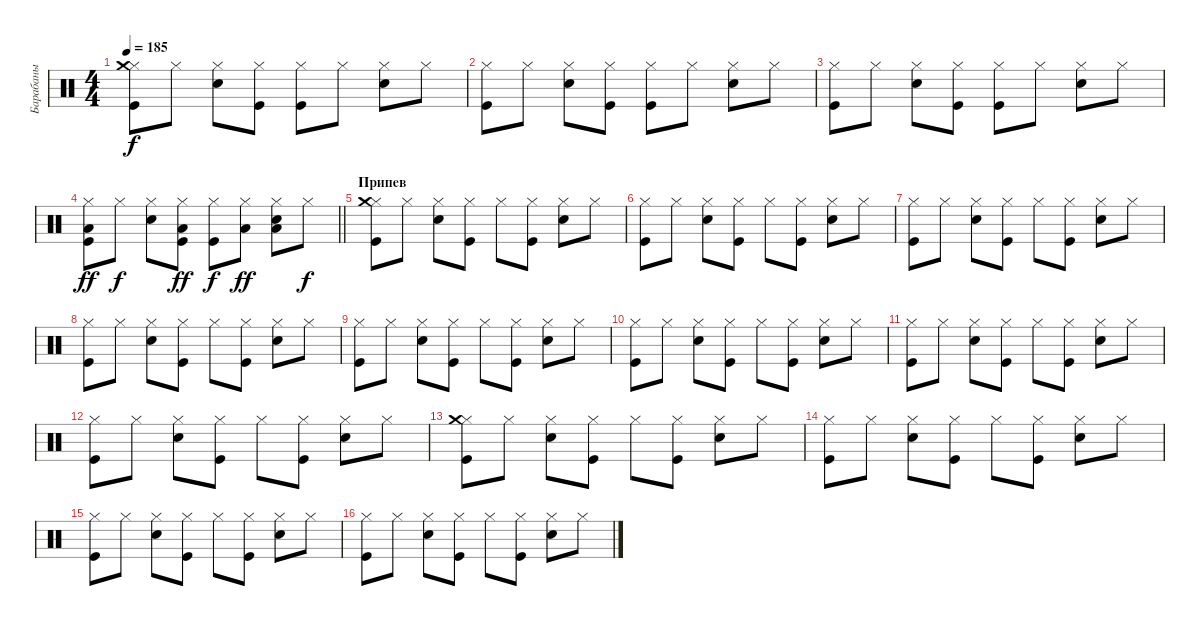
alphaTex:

\track ("Барабаны" "Барабаны") {instrument percussion}
\staff {score}
\articulation defaults
\ts (4 4)
\tempo 185
\clef neutral
\ks c
("Kick (hit)" "Hi-Hat (closed)" "Crash medium (hit)").8{dy f} "Hi-Hat (closed)".8 ("Snare (hit) 2" "Hi-Hat (closed)").8 ("Kick (hit)" "Hi-Hat (closed)").8 ("Kick (hit)" "Hi-Hat (closed)").8 "Hi-Hat (closed)".8 ("Snare (hit) 2" "Hi-Hat (closed)").8 "Hi-Hat (closed)".8 |
("Kick (hit)" "Hi-Hat (closed)").8 "Hi-Hat (closed)".8 ("Snare (hit) 2" "Hi-Hat (closed)").8 ("Kick (hit)" "Hi-Hat (closed)").8 ("Kick (hit)" "Hi-Hat (closed)").8 "Hi-Hat (closed)".8 ("Snare (hit) 2" "Hi-Hat (closed)").8 "Hi-Hat (closed)".8 |
("Kick (hit)" "Hi-Hat (closed)").8 "Hi-Hat (closed)".8 ("Snare (hit) 2" "Hi-Hat (closed)").8 ("Kick (hit)" "Hi-Hat (closed)").8 ("Kick (hit)" "Hi-Hat (closed)").8 "Hi-Hat (closed)".8 ("Snare (hit) 2" "Hi-Hat (closed)").8 "Hi-Hat (closed)".8 |
\barLineRight lightlight
("Kick (hit)" "Hi-Hat (closed)" "Low Floor Tom (hit)").8{dy ff} "Hi-Hat (closed)".8{dy f} ("Snare (hit) 2" "Hi-Hat (closed)").8 ("Kick (hit)" "Hi-Hat (closed)" "Low Floor Tom (hit)").8{dy ff} ("Kick (hit)" "Hi-Hat (closed)").8{dy f} ("Hi-Hat (closed)" "Low Floor Tom (hit)").8{dy ff} ("Snare (hit) 2" "Hi-Hat (closed)" "Low Floor Tom (hit)").8 "Hi-Hat (closed)".8{dy f} |
\section ("" "Припев")
("Kick (hit)" "Hi-Hat (closed)" "Crash medium (hit)").8 "Hi-Hat (closed)".8 ("Snare (hit) 2" "Hi-Hat (closed)").8 ("Kick (hit)" "Hi-Hat (closed)").8 "Hi-Hat (closed)".8 ("Kick (hit)" "Hi-Hat (closed)").8 ("Snare (hit) 2" "Hi-Hat (closed)").8 "Hi-Hat (closed)".8 |
("Kick (hit)" "Hi-Hat (closed)").8 "Hi-Hat (closed)".8 ("Snare (hit) 2" "Hi-Hat (closed)").8 ("Kick (hit)" "Hi-Hat (closed)").8 "Hi-Hat (closed)".8 ("Kick (hit)" "Hi-Hat (closed)").8 ("Snare (hit) 2" "Hi-Hat (closed)").8 "Hi-Hat (closed)".8 |
("Kick (hit)" "Hi-Hat (closed)").8 "Hi-Hat (closed)".8 ("Snare (hit) 2" "Hi-Hat (closed)").8 ("Kick (hit)" "Hi-Hat (closed)").8 "Hi-Hat (closed)".8 ("Kick (hit)" "Hi-Hat (closed)").8 ("Snare (hit) 2" "Hi-Hat (closed)").8 "Hi-Hat (closed)".8 |
("Kick (hit)" "Hi-Hat (closed)").8 "Hi-Hat (closed)".8 ("Snare (hit) 2" "Hi-Hat (closed)").8 ("Kick (hit)" "Hi-Hat (closed)").8 "Hi-Hat (closed)".8 ("Kick (hit)" "Hi-Hat (closed)").8 ("Snare (hit) 2" "Hi-Hat (closed)").8 "Hi-Hat (closed)".8 |
("Kick (hit)" "Hi-Hat (closed)").8 "Hi-Hat (closed)".8 ("Snare (hit) 2" "Hi-Hat (closed)").8 ("Kick (hit)" "Hi-Hat (closed)").8 "Hi-Hat (closed)".8 ("Kick (hit)" "Hi-Hat (closed)").8 ("Snare (hit) 2" "Hi-Hat (closed)").8 "Hi-Hat (closed)".8 |
("Kick (hit)" "Hi-Hat (closed)").8 "Hi-Hat (closed)".8 ("Snare (hit) 2" "Hi-Hat (closed)").8 ("Kick (hit)" "Hi-Hat (closed)").8 "Hi-Hat (closed)".8 ("Kick (hit)" "Hi-Hat (closed)").8 ("Snare (hit) 2" "Hi-Hat (closed)").8 "Hi-Hat (closed)".8 |
("Kick (hit)" "Hi-Hat (closed)").8 "Hi-Hat (closed)".8 ("Snare (hit) 2" "Hi-Hat (closed)").8 ("Kick (hit)" "Hi-Hat (closed)").8 "Hi-Hat (closed)".8 ("Kick (hit)" "Hi-Hat (closed)").8 ("Snare (hit) 2" "Hi-Hat (closed)").8 "Hi-Hat (closed)".8 |
("Kick (hit)" "Hi-Hat (closed)").8 "Hi-Hat (closed)".8 ("Snare (hit) 2" "Hi-Hat (closed)").8 ("Kick (hit)" "Hi-Hat (closed)").8 "Hi-Hat (closed)".8 ("Kick (hit)" "Hi-Hat (closed)").8 ("Snare (hit) 2" "Hi-Hat (closed)").8 "Hi-Hat (closed)".8 |
("Kick (hit)" "Hi-Hat (closed)" "Crash medium (hit)").8 "Hi-Hat (closed)".8 ("Snare (hit) 2" "Hi-Hat (closed)").8 ("Kick (hit)" "Hi-Hat (closed)").8 "Hi-Hat (closed)".8 ("Kick (hit)" "Hi-Hat (closed)").8 ("Snare (hit) 2" "Hi-Hat (closed)").8 "Hi-Hat (closed)".8 |
("Kick (hit)" "Hi-Hat (closed)").8 "Hi-Hat (closed)".8 ("Snare (hit) 2" "Hi-Hat (closed)").8 ("Kick (hit)" "Hi-Hat (closed)").8 "Hi-Hat (closed)".8 ("Kick (hit)" "Hi-Hat (closed)").8 ("Snare (hit) 2" "Hi-Hat (closed)").8 "Hi-Hat (closed)".8 |
("Kick (hit)" "Hi-Hat (closed)").8 "Hi-Hat (closed)".8 ("Snare (hit) 2" "Hi-Hat (closed)").8 ("Kick (hit)" "Hi-Hat (closed)").8 "Hi-Hat (closed)".8 ("Kick (hit)" "Hi-Hat (closed)").8 ("Snare (hit) 2" "Hi-Hat (closed)").8 "Hi-Hat (closed)".8 |
("Kick (hit)" "Hi-Hat (closed)").8 "Hi-Hat (closed)".8 ("Snare (hit) 2" "Hi-Hat (closed)").8 ("Kick (hit)" "Hi-Hat (closed)").8 "Hi-Hat (closed)".8 ("Kick (hit)" "Hi-Hat (closed)").8 ("Snare (hit) 2" "Hi-Hat (closed)").8 "Hi-Hat (closed)".8
